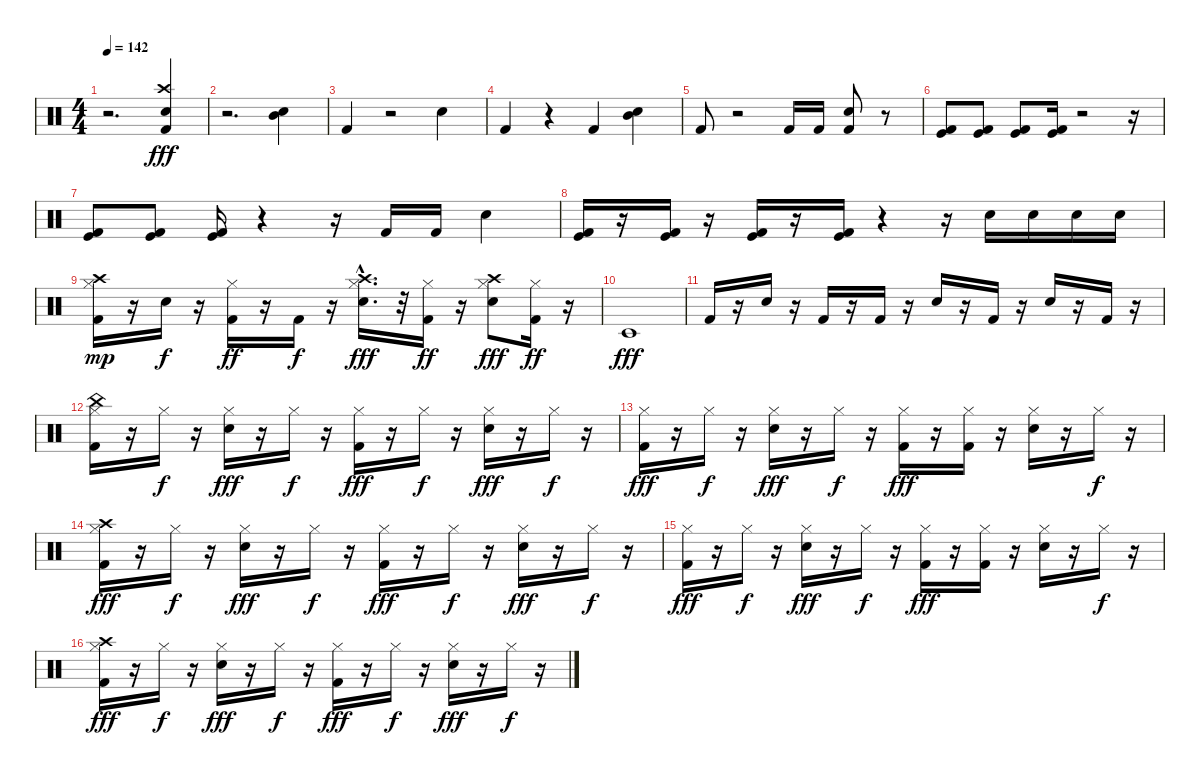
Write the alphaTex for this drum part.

\track "" {instrument percussion}
\staff {score}
\articulation defaults
\ts (4 4)
\tempo 142
\clef neutral
\ks c
r.2{d dy fff} ("Snare (hit) 2" "Crash high (hit)" "Kick (hit) 2").4 |
r.2{d} ("Snare (hit) 2" "Mid Tom (hit)").4 |
"Kick (hit) 2".4 r.2 "Snare (hit) 2".4 |
"Kick (hit) 2".4 r.4 "Kick (hit) 2".4 ("Snare (hit) 2" "Mid Tom (hit)").4 |
"Kick (hit) 2".8 r.2 "Kick (hit) 2".16 "Kick (hit) 2".16 ("Kick (hit) 2" "Snare (hit) 2").8 r.8 |
("Kick (hit) 2" "Kick (hit)").8 ("Kick (hit)" "Kick (hit) 2").8 ("Kick (hit)" "Kick (hit) 2").8 ("Kick (hit)" "Kick (hit) 2").16 r.2 r.16 |
("Kick (hit)" "Kick (hit) 2").8 ("Kick (hit)" "Kick (hit) 2").8 ("Kick (hit)" "Kick (hit) 2").16 r.4 r.16 "Kick (hit) 2".16 "Kick (hit) 2".16 "Snare (hit) 2".4 |
("Kick (hit)" "Kick (hit) 2").16 r.16 ("Kick (hit)" "Kick (hit) 2").16 r.16 ("Kick (hit)" "Kick (hit) 2").16 r.16 ("Kick (hit)" "Kick (hit) 2").16 r.4 r.16 "Electric Snare (hit)".16 "Snare (hit) 2".16 "Electric Snare (hit)".16 "Snare (hit) 2".16 |
("Hi-Hat (closed)" "Crash high (hit)" "Kick (hit) 2").16{dy mp} r.16 "Snare (hit) 2".16{dy f} r.16 ("Hi-Hat (closed)" "Kick (hit) 2").16{dy ff} r.16 "Kick (hit) 2".16{dy f} r.16 ("Crash high (hit)" "Hi-Hat (closed)" "Snare (hit) 2"{hac}).16{d dy fff} r.32 ("Kick (hit) 2" "Hi-Hat (closed)").16{dy ff} r.16 ("Crash high (hit)" "Hi-Hat (closed)" "Snare (hit) 2").8{dy fff} ("Kick (hit) 2" "Hi-Hat (closed)").16{dy ff} r.16 |
"Timbale low (hit)".1{dy fff} |
"Kick (hit) 2".16 r.16 "Snare (hit) 2".16 r.16 "Kick (hit) 2".16 r.16 "Kick (hit) 2".16 r.16 "Snare (hit) 2".16 r.16 "Kick (hit) 2".16 r.16 "Snare (hit) 2".16 r.16 "Kick (hit) 2".16 r.16 |
("Hi-Hat (closed)" "Kick (hit) 2" "China (hit)").16 r.16 "Hi-Hat (closed)".16{dy f} r.16 ("Electric Snare (hit)" "Hi-Hat (closed)").16{dy fff} r.16 "Hi-Hat (closed)".16{dy f} r.16 ("Hi-Hat (closed)" "Kick (hit) 2").16{dy fff} r.16 "Hi-Hat (closed)".16{dy f} r.16 ("Electric Snare (hit)" "Hi-Hat (closed)").16{dy fff} r.16 "Hi-Hat (closed)".16{dy f} r.16 |
("Hi-Hat (closed)" "Kick (hit) 2").16{dy fff} r.16 "Hi-Hat (closed)".16{dy f} r.16 ("Electric Snare (hit)" "Hi-Hat (closed)").16{dy fff} r.16 "Hi-Hat (closed)".16{dy f} r.16 ("Hi-Hat (closed)" "Kick (hit) 2").16{dy fff} r.16 ("Hi-Hat (closed)" "Kick (hit) 2").16 r.16 ("Electric Snare (hit)" "Hi-Hat (closed)").16 r.16 "Hi-Hat (closed)".16{dy f} r.16 |
("Hi-Hat (closed)" "Kick (hit) 2" "Crash high (hit)").16{dy fff} r.16 "Hi-Hat (closed)".16{dy f} r.16 ("Electric Snare (hit)" "Hi-Hat (closed)").16{dy fff} r.16 "Hi-Hat (closed)".16{dy f} r.16 ("Hi-Hat (closed)" "Kick (hit) 2").16{dy fff} r.16 "Hi-Hat (closed)".16{dy f} r.16 ("Electric Snare (hit)" "Hi-Hat (closed)").16{dy fff} r.16 "Hi-Hat (closed)".16{dy f} r.16 |
("Hi-Hat (closed)" "Kick (hit) 2").16{dy fff} r.16 "Hi-Hat (closed)".16{dy f} r.16 ("Electric Snare (hit)" "Hi-Hat (closed)").16{dy fff} r.16 "Hi-Hat (closed)".16{dy f} r.16 ("Hi-Hat (closed)" "Kick (hit) 2").16{dy fff} r.16 ("Hi-Hat (closed)" "Kick (hit) 2").16 r.16 ("Electric Snare (hit)" "Hi-Hat (closed)").16 r.16 "Hi-Hat (closed)".16{dy f} r.16 |
("Crash high (hit)" "Hi-Hat (closed)" "Kick (hit) 2").16{dy fff} r.16 "Hi-Hat (closed)".16{dy f} r.16 ("Electric Snare (hit)" "Hi-Hat (closed)").16{dy fff} r.16 "Hi-Hat (closed)".16{dy f} r.16 ("Hi-Hat (closed)" "Kick (hit) 2").16{dy fff} r.16 "Hi-Hat (closed)".16{dy f} r.16 ("Electric Snare (hit)" "Hi-Hat (closed)").16{dy fff} r.16 "Hi-Hat (closed)".16{dy f} r.16
